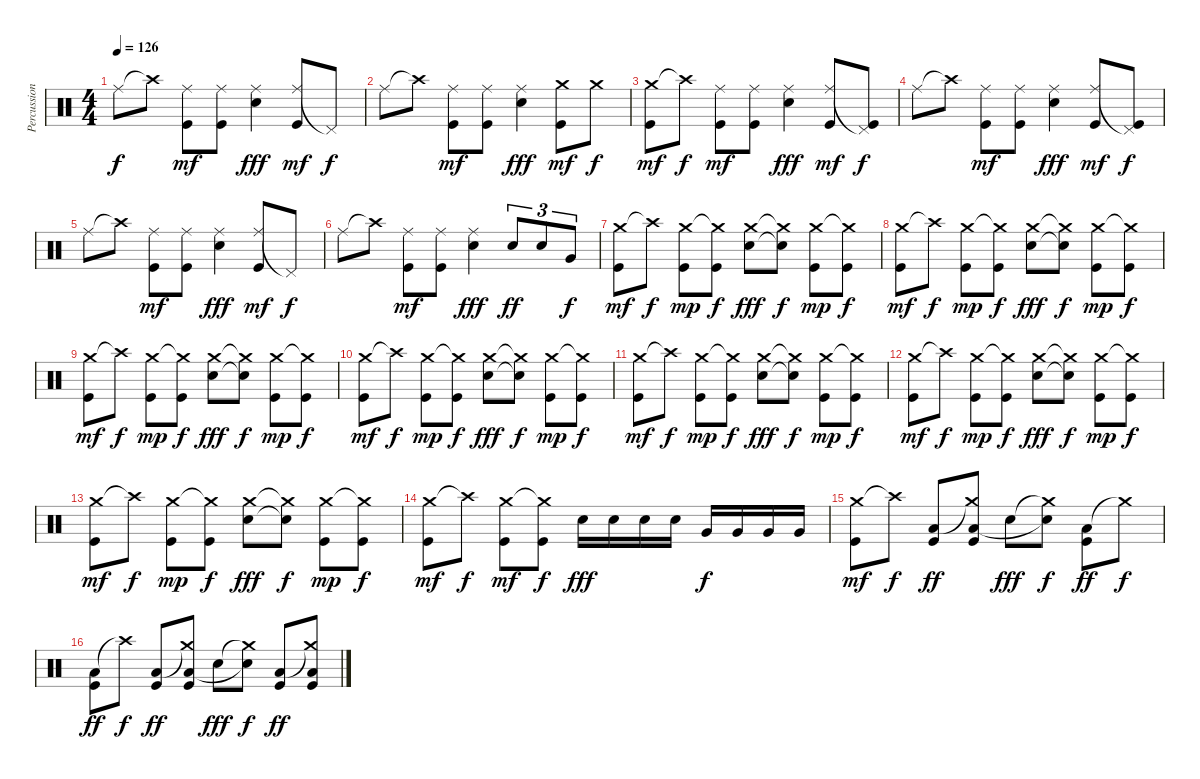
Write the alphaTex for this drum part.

\track ("Percussions" "Percussion") {instrument percussion}
\staff {score}
\articulation defaults
\ts (4 4)
\tempo 126
\clef neutral
\ks c "Ride (middle)".8{dy f} "Crash high (hit)"{t}.8
("Ride (middle)" "Kick (hit)").8{dy mf} ("Ride (middle)" "Kick (hit)").8 ("Ride (middle)" "Snare (hit) 2").4{dy fff} ("Ride (middle)" "Kick (hit)").8{dy mf} "Pedal Hi-Hat (hit)"{t}.8{dy f} |
"Ride (middle)".8 "Crash high (hit)"{t}.8 ("Ride (middle)" "Kick (hit)").8{dy mf} ("Ride (middle)" "Kick (hit)").8 ("Ride (middle)" "Snare (hit) 2").4{dy fff} ("Crash medium (hit)" "Kick (hit)").8{dy mf} "Crash medium (hit)".8{dy f} |
("Crash medium (hit)" "Kick (hit)").8{dy mf} "Crash high (hit)"{t}.8{dy f} ("Ride (middle)" "Kick (hit)").8{dy mf} ("Ride (middle)" "Kick (hit)").8 ("Ride (middle)" "Snare (hit) 2").4{dy fff} ("Ride (middle)" "Kick (hit)").8{dy mf} ("Pedal Hi-Hat (hit)"{t} "Kick (hit)").8{dy f} |
"Ride (middle)".8 "Crash high (hit)"{t}.8 ("Ride (middle)" "Kick (hit)").8{dy mf} ("Ride (middle)" "Kick (hit)").8 ("Ride (middle)" "Snare (hit) 2").4{dy fff} ("Ride (middle)" "Kick (hit)").8{dy mf} ("Pedal Hi-Hat (hit)"{t} "Kick (hit)").8{dy f} |
"Ride (middle)".8 "Crash high (hit)"{t}.8 ("Ride (middle)" "Kick (hit)").8{dy mf} ("Ride (middle)" "Kick (hit)").8 ("Ride (middle)" "Snare (hit) 2").4{dy fff} ("Ride (middle)" "Kick (hit)").8{dy mf} "Pedal Hi-Hat (hit)"{t}.8{dy f} |
"Ride (middle)".8 "Crash high (hit)"{t}.8 ("Ride (middle)" "Kick (hit)").8{dy mf} ("Ride (middle)" "Kick (hit)").8 ("Ride (middle)" "Snare (hit) 2").4{dy fff} "Snare (hit) 2".8{tu (3 2) dy ff} "Snare (hit) 2".8{tu (3 2)} "Very Low Tom (hit)".8{tu (3 2) dy f} |
("Crash medium (hit)" "Kick (hit)").8{dy mf} "Crash high (hit)"{t}.8{dy f} ("Crash medium (hit)" "Kick (hit)").8{dy mp} ("Crash medium (hit)"{t} "Kick (hit)").8{dy f} ("Crash medium (hit)" "Snare (hit) 2").8{dy fff} ("Crash medium (hit)"{t} "Snare (hit) 2"{t}).8{dy f} ("Crash medium (hit)" "Kick (hit)").8{dy mp} ("Crash medium (hit)"{t} "Kick (hit)").8{dy f} |
("Crash medium (hit)" "Kick (hit)").8{dy mf} "Crash high (hit)"{t}.8{dy f} ("Crash medium (hit)" "Kick (hit)").8{dy mp} ("Crash medium (hit)"{t} "Kick (hit)").8{dy f} ("Crash medium (hit)" "Snare (hit) 2").8{dy fff} ("Crash medium (hit)"{t} "Snare (hit) 2"{t}).8{dy f} ("Crash medium (hit)" "Kick (hit)").8{dy mp} ("Crash medium (hit)"{t} "Kick (hit)").8{dy f} |
("Crash medium (hit)" "Kick (hit)").8{dy mf} "Crash high (hit)"{t}.8{dy f} ("Crash medium (hit)" "Kick (hit)").8{dy mp} ("Crash medium (hit)"{t} "Kick (hit)").8{dy f} ("Crash medium (hit)" "Snare (hit) 2").8{dy fff} ("Crash medium (hit)"{t} "Snare (hit) 2"{t}).8{dy f} ("Crash medium (hit)" "Kick (hit)").8{dy mp} ("Crash medium (hit)"{t} "Kick (hit)").8{dy f} |
("Crash medium (hit)" "Kick (hit)").8{dy mf} "Crash high (hit)"{t}.8{dy f} ("Crash medium (hit)" "Kick (hit)").8{dy mp} ("Crash medium (hit)"{t} "Kick (hit)").8{dy f} ("Crash medium (hit)" "Snare (hit) 2").8{dy fff} ("Crash medium (hit)"{t} "Snare (hit) 2"{t}).8{dy f} ("Crash medium (hit)" "Kick (hit)").8{dy mp} ("Crash medium (hit)"{t} "Kick (hit)").8{dy f} |
("Crash medium (hit)" "Kick (hit)").8{dy mf} "Crash high (hit)"{t}.8{dy f} ("Crash medium (hit)" "Kick (hit)").8{dy mp} ("Crash medium (hit)"{t} "Kick (hit)").8{dy f} ("Crash medium (hit)" "Snare (hit) 2").8{dy fff} ("Crash medium (hit)"{t} "Snare (hit) 2"{t}).8{dy f} ("Crash medium (hit)" "Kick (hit)").8{dy mp} ("Crash medium (hit)"{t} "Kick (hit)").8{dy f} |
("Crash medium (hit)" "Kick (hit)").8{dy mf} "Crash high (hit)"{t}.8{dy f} ("Crash medium (hit)" "Kick (hit)").8{dy mp} ("Crash medium (hit)"{t} "Kick (hit)").8{dy f} ("Crash medium (hit)" "Snare (hit) 2").8{dy fff} ("Crash medium (hit)"{t} "Snare (hit) 2"{t}).8{dy f} ("Crash medium (hit)" "Kick (hit)").8{dy mp} ("Crash medium (hit)"{t} "Kick (hit)").8{dy f} |
("Crash medium (hit)" "Kick (hit)").8{dy mf} "Crash high (hit)"{t}.8{dy f} ("Crash medium (hit)" "Kick (hit)").8{dy mp} ("Crash medium (hit)"{t} "Kick (hit)").8{dy f} ("Crash medium (hit)" "Snare (hit) 2").8{dy fff} ("Crash medium (hit)"{t} "Snare (hit) 2"{t}).8{dy f} ("Crash medium (hit)" "Kick (hit)").8{dy mp} ("Crash medium (hit)"{t} "Kick (hit)").8{dy f} |
("Crash medium (hit)" "Kick (hit)").8{dy mf} "Crash high (hit)"{t}.8{dy f} ("Crash medium (hit)" "Kick (hit)").8{dy mf} ("Crash medium (hit)"{t} "Kick (hit)").8{dy f} "Snare (hit) 2".16{dy fff} "Snare (hit) 2".16 "Snare (hit) 2".16 "Snare (hit) 2".16 "Very Low Tom (hit)".16{dy f} "Very Low Tom (hit)".16 "Very Low Tom (hit)".16 "Very Low Tom (hit)".16 |
("Crash medium (hit)" "Kick (hit)").8{dy mf} "Crash high (hit)"{t}.8{dy f} ("Low Floor Tom (hit)" "Kick (hit)").8{dy ff} ("Crash medium (hit)"{t} "Low Floor Tom (hit)" "Kick (hit)").8 "Snare (hit) 2".8{dy fff} ("Crash medium (hit)"{t} "Snare (hit) 2"{t}).8{dy f} ("Low Floor Tom (hit)" "Kick (hit)").8{dy ff} "Crash medium (hit)"{t}.8{dy f} |
("Low Floor Tom (hit)" "Kick (hit)").8{dy ff} "Crash high (hit)"{t}.8{dy f} ("Low Floor Tom (hit)" "Kick (hit)").8{dy ff} ("Crash medium (hit)"{t} "Low Floor Tom (hit)" "Kick (hit)").8 "Snare (hit) 2".8{dy fff} ("Crash medium (hit)"{t} "Snare (hit) 2"{t}).8{dy f} ("Low Floor Tom (hit)" "Kick (hit)").8{dy ff} ("Crash medium (hit)"{t} "Low Floor Tom (hit)" "Kick (hit)").8
